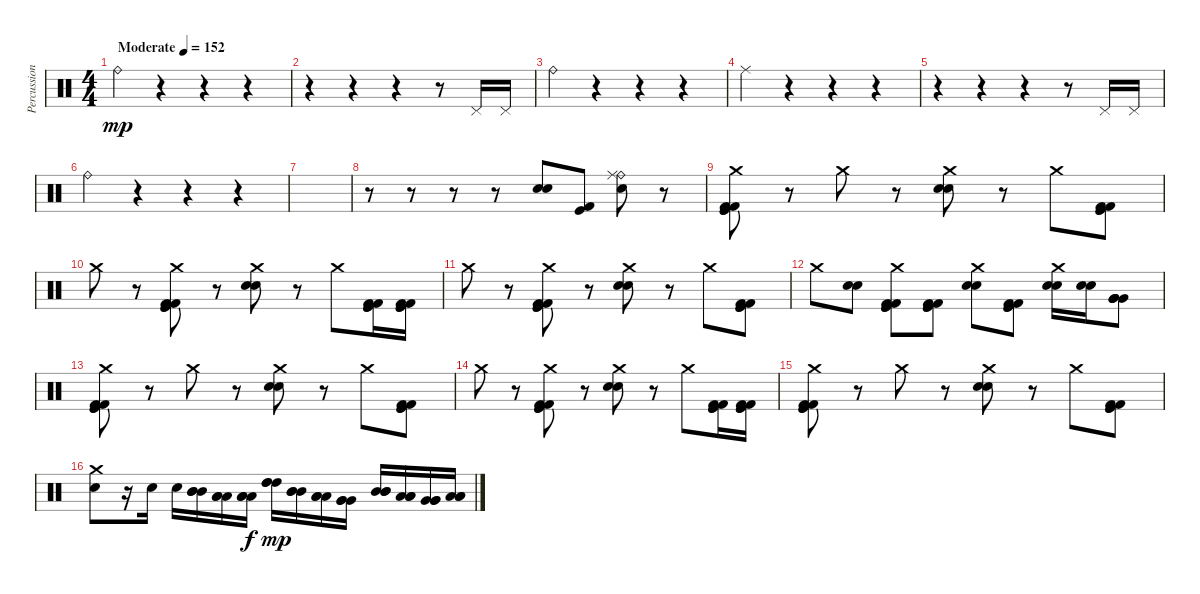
\track ("Percussion" "Percussion") {instrument percussion}
\staff {score}
\articulation defaults
\ts (4 4)
\tempo (152 "Moderate")
\clef neutral
\ks c "Ride (bell)".4{dy mp}
r.4 r.4 r.4 |
r.4 r.4 r.4 r.8 "Pedal Hi-Hat (hit)".16 "Pedal Hi-Hat (hit)".16 |
"Ride (bell)".4 r.4 r.4 r.4 |
"Ride (middle)".4 r.4 r.4 r.4 |
r.4 r.4 r.4 r.8 "Pedal Hi-Hat (hit)".16 "Pedal Hi-Hat (hit)".16 |
"Ride (bell)".4 r.4 r.4 r.4 |
|
r.8 r.8 r.8 r.8 ("Snare (hit) 2" "Electric Snare (hit)").8 ("Kick (hit) 2" "Kick (hit)").8 ("Ride (bell)" "Metronome (bell)" "Ride (middle)").8 r.8 |
("Crash medium (hit)" "Kick (hit) 2" "Kick (hit)" "Kick (hit) 2" "Kick (hit)").8 r.8 "Crash medium (hit)".8 r.8 ("Crash medium (hit)" "Electric Snare (hit)" "Snare (hit) 2").8 r.8 "Crash medium (hit)".8 ("Kick (hit) 2" "Kick (hit)" "Kick (hit) 2" "Kick (hit)").8 |
"Crash medium (hit)".8 r.8 ("Crash medium (hit)" "Kick (hit) 2" "Kick (hit)" "Kick (hit) 2" "Kick (hit)").8 r.8 ("Crash medium (hit)" "Electric Snare (hit)" "Snare (hit) 2").8 r.8 "Crash medium (hit)".8 ("Kick (hit) 2" "Kick (hit)" "Kick (hit) 2" "Kick (hit)").16 ("Kick (hit) 2" "Kick (hit)" "Kick (hit) 2" "Kick (hit)").16 |
"Crash medium (hit)".8 r.8 ("Crash medium (hit)" "Kick (hit) 2" "Kick (hit)" "Kick (hit) 2" "Kick (hit)").8 r.8 ("Crash medium (hit)" "Electric Snare (hit)" "Snare (hit) 2").8 r.8 "Crash medium (hit)".8 ("Kick (hit) 2" "Kick (hit)" "Kick (hit) 2" "Kick (hit)").8 |
"Crash medium (hit)".8 ("Electric Snare (hit)" "Snare (hit) 2").8 ("Crash medium (hit)" "Kick (hit) 2" "Kick (hit)" "Kick (hit) 2" "Kick (hit)").8 ("Kick (hit) 2" "Kick (hit)" "Kick (hit) 2" "Kick (hit)").8 ("Crash medium (hit)" "Electric Snare (hit)" "Snare (hit) 2").8 ("Kick (hit) 2" "Kick (hit)" "Kick (hit) 2" "Kick (hit)").8 ("Crash medium (hit)" "Electric Snare (hit)" "Snare (hit) 2").16 ("Electric Snare (hit)" "Snare (hit) 2").16 ("Very Low Tom (hit)" "Very Low Tom (hit)" "Very Low Tom (hit)" "Very Low Tom (hit)").8 |
("Crash medium (hit)" "Kick (hit) 2" "Kick (hit)" "Kick (hit) 2" "Kick (hit)").8 r.8 "Crash medium (hit)".8 r.8 ("Crash medium (hit)" "Electric Snare (hit)" "Snare (hit) 2").8 r.8 "Crash medium (hit)".8 ("Kick (hit) 2" "Kick (hit)" "Kick (hit) 2" "Kick (hit)").8 |
"Crash medium (hit)".8 r.8 ("Crash medium (hit)" "Kick (hit) 2" "Kick (hit)" "Kick (hit) 2" "Kick (hit)").8 r.8 ("Crash medium (hit)" "Electric Snare (hit)" "Snare (hit) 2").8 r.8 "Crash medium (hit)".8 ("Kick (hit) 2" "Kick (hit)" "Kick (hit) 2" "Kick (hit)").16 ("Kick (hit) 2" "Kick (hit)" "Kick (hit) 2" "Kick (hit)").16 |
("Crash medium (hit)" "Kick (hit) 2" "Kick (hit)" "Kick (hit) 2" "Kick (hit)").8 r.8 "Crash medium (hit)".8 r.8 ("Crash medium (hit)" "Electric Snare (hit)" "Snare (hit) 2").8 r.8 "Crash medium (hit)".8 ("Kick (hit) 2" "Kick (hit)" "Kick (hit) 2" "Kick (hit)").8 |
("Crash medium (hit)" "Snare (hit) 2").8 r.16 "Snare (hit) 2".16 "Snare (hit) 2".16 ("Mid Tom (hit)" "Mid Tom (hit)" "Mid Tom (hit)").16 ("Low Tom (hit)" "Low Tom (hit)" "Low Tom (hit)").16 ("Low Tom (hit)" "Low Tom (hit)" "Low Tom (hit)").16{dy f} ("High Tom (hit)" "High Tom (hit)" "High Tom (hit)").16{dy mp} ("Mid Tom (hit)" "Mid Tom (hit)" "Mid Tom (hit)").16 ("Low Tom (hit)" "Low Tom (hit)" "Low Tom (hit)").16 ("Very Low Tom (hit)" "Very Low Tom (hit)" "Very Low Tom (hit)").16 ("Mid Tom (hit)" "Mid Tom (hit)" "Mid Tom (hit)").16 ("Low Tom (hit)" "Low Tom (hit)" "Low Tom (hit)").16 ("Very Low Tom (hit)" "Very Low Tom (hit)" "Very Low Tom (hit)").16 ("Low Floor Tom (hit)" "Low Floor Tom (hit)" "Low Floor Tom (hit)").16
